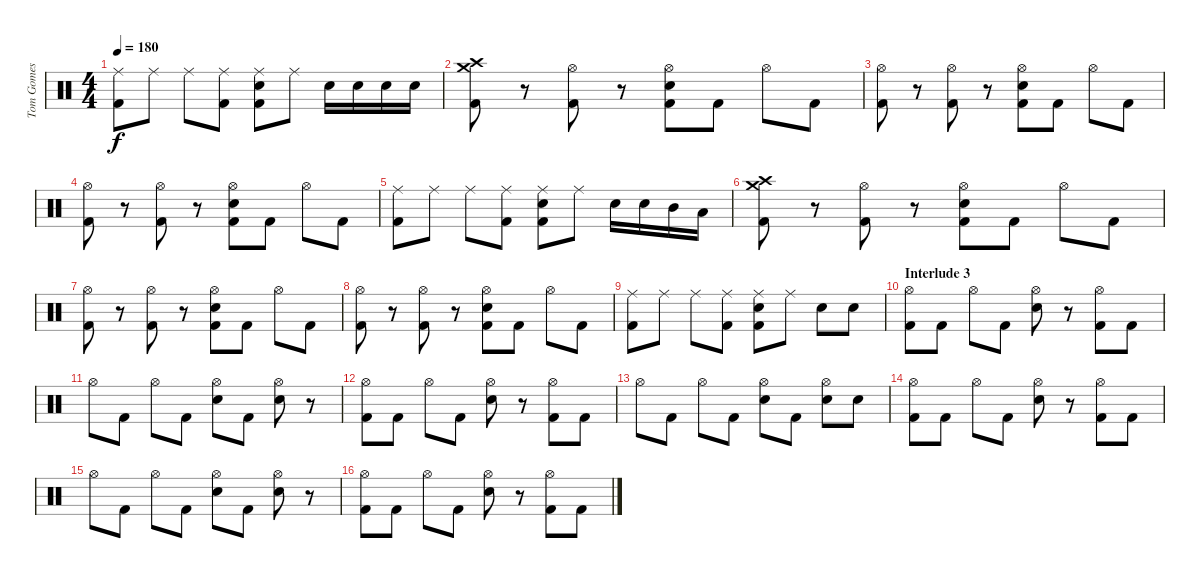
\track ("Tom Gomes" "Tom Gomes") {instrument percussion}
\staff {score}
\articulation defaults
\ts (4 4)
\tempo 180
\clef neutral
\ks c
("Ride (middle)" "Kick (hit) 2").8{dy f} "Ride (middle)".8 "Ride (middle)".8 ("Ride (middle)" "Kick (hit) 2").8 ("Ride (middle)" "Snare (hit) 2" "Kick (hit) 2").8 "Ride (middle)".8 "Snare (hit) 2".16 "Snare (hit) 2".16 "Snare (hit) 2".16 "Snare (hit) 2".16 |
("Crash high (hit)" "Crash medium (hit)" "Kick (hit) 2").8 r.8 ("Hi-Hat (open)" "Kick (hit) 2").8 r.8 ("Hi-Hat (open)" "Snare (hit) 2" "Kick (hit) 2").8 "Kick (hit) 2".8 "Hi-Hat (open)".8 "Kick (hit) 2".8 |
("Hi-Hat (open)" "Kick (hit) 2").8 r.8 ("Hi-Hat (open)" "Kick (hit) 2").8 r.8 ("Hi-Hat (open)" "Snare (hit) 2" "Kick (hit) 2").8 "Kick (hit) 2".8 "Hi-Hat (open)".8 "Kick (hit) 2".8 |
("Hi-Hat (open)" "Kick (hit) 2").8 r.8 ("Hi-Hat (open)" "Kick (hit) 2").8 r.8 ("Hi-Hat (open)" "Snare (hit) 2" "Kick (hit) 2").8 "Kick (hit) 2".8 "Hi-Hat (open)".8 "Kick (hit) 2".8 |
("Ride (middle)" "Kick (hit) 2").8 "Ride (middle)".8 "Ride (middle)".8 ("Ride (middle)" "Kick (hit) 2").8 ("Ride (middle)" "Snare (hit) 2" "Kick (hit) 2").8 "Ride (middle)".8 "Snare (hit) 2".16 "Snare (hit) 2".16 "Mid Tom (hit)".16 "Low Tom (hit)".16 |
("Crash high (hit)" "Crash medium (hit)" "Kick (hit) 2").8 r.8 ("Hi-Hat (open)" "Kick (hit) 2").8 r.8 ("Hi-Hat (open)" "Snare (hit) 2" "Kick (hit) 2").8 "Kick (hit) 2".8 "Hi-Hat (open)".8 "Kick (hit) 2".8 |
("Hi-Hat (open)" "Kick (hit) 2").8 r.8 ("Hi-Hat (open)" "Kick (hit) 2").8 r.8 ("Hi-Hat (open)" "Snare (hit) 2" "Kick (hit) 2").8 "Kick (hit) 2".8 "Hi-Hat (open)".8 "Kick (hit) 2".8 |
("Hi-Hat (open)" "Kick (hit) 2").8 r.8 ("Hi-Hat (open)" "Kick (hit) 2").8 r.8 ("Hi-Hat (open)" "Snare (hit) 2" "Kick (hit) 2").8 "Kick (hit) 2".8 "Hi-Hat (open)".8 "Kick (hit) 2".8 |
("Ride (middle)" "Kick (hit) 2").8 "Ride (middle)".8 "Ride (middle)".8 ("Ride (middle)" "Kick (hit) 2").8 ("Ride (middle)" "Snare (hit) 2" "Kick (hit) 2").8 "Ride (middle)".8 "Snare (hit) 2".8 "Snare (hit) 2".8 |
\section ("" "Interlude 3")
("Hi-Hat (open)" "Kick (hit) 2").8 "Kick (hit) 2".8 "Hi-Hat (open)".8 "Kick (hit) 2".8 ("Hi-Hat (open)" "Snare (hit) 2").8 r.8 ("Hi-Hat (open)" "Kick (hit) 2").8 "Kick (hit) 2".8 |
"Hi-Hat (open)".8 "Kick (hit) 2".8 "Hi-Hat (open)".8 "Kick (hit) 2".8 ("Hi-Hat (open)" "Snare (hit) 2").8 "Kick (hit) 2".8 ("Hi-Hat (open)" "Snare (hit) 2").8 r.8 |
("Hi-Hat (open)" "Kick (hit) 2").8 "Kick (hit) 2".8 "Hi-Hat (open)".8 "Kick (hit) 2".8 ("Hi-Hat (open)" "Snare (hit) 2").8 r.8 ("Hi-Hat (open)" "Kick (hit) 2").8 "Kick (hit) 2".8 |
"Hi-Hat (open)".8 "Kick (hit) 2".8 "Hi-Hat (open)".8 "Kick (hit) 2".8 ("Hi-Hat (open)" "Snare (hit) 2").8 "Kick (hit) 2".8 ("Hi-Hat (open)" "Snare (hit) 2").8 "Snare (hit) 2".8 |
("Hi-Hat (open)" "Kick (hit) 2").8 "Kick (hit) 2".8 "Hi-Hat (open)".8 "Kick (hit) 2".8 ("Hi-Hat (open)" "Snare (hit) 2").8 r.8 ("Hi-Hat (open)" "Kick (hit) 2").8 "Kick (hit) 2".8 |
"Hi-Hat (open)".8 "Kick (hit) 2".8 "Hi-Hat (open)".8 "Kick (hit) 2".8 ("Hi-Hat (open)" "Snare (hit) 2").8 "Kick (hit) 2".8 ("Hi-Hat (open)" "Snare (hit) 2").8 r.8 |
("Hi-Hat (open)" "Kick (hit) 2").8 "Kick (hit) 2".8 "Hi-Hat (open)".8 "Kick (hit) 2".8 ("Hi-Hat (open)" "Snare (hit) 2").8 r.8 ("Hi-Hat (open)" "Kick (hit) 2").8 "Kick (hit) 2".8
